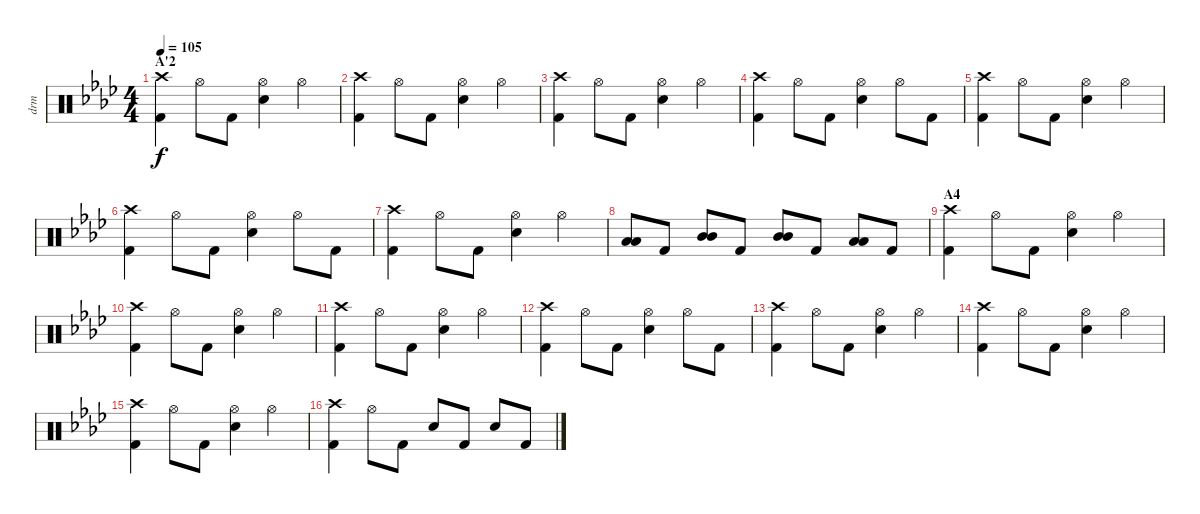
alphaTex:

\track ("drm" "drm") {instrument percussion}
\staff {score}
\articulation defaults
\ts (4 4)
\section ("" "A'2")
\tempo 105
\clef neutral
\ks ab
("Crash high (hit)" "Kick (hit) 2").4{dy f} "Hi-Hat (open)".8 "Kick (hit) 2".8 ("Hi-Hat (open)" "Electric Snare (hit)").4 "Hi-Hat (open)".4 |
("Crash high (hit)" "Kick (hit) 2").4 "Hi-Hat (open)".8 "Kick (hit) 2".8 ("Hi-Hat (open)" "Electric Snare (hit)").4 "Hi-Hat (open)".4 |
("Crash high (hit)" "Kick (hit) 2").4 "Hi-Hat (open)".8 "Kick (hit) 2".8 ("Hi-Hat (open)" "Electric Snare (hit)").4 "Hi-Hat (open)".4 |
("Crash high (hit)" "Kick (hit) 2").4 "Hi-Hat (open)".8 "Kick (hit) 2".8 ("Hi-Hat (open)" "Electric Snare (hit)").4 "Hi-Hat (open)".8 "Kick (hit) 2".8 |
("Crash high (hit)" "Kick (hit) 2").4 "Hi-Hat (open)".8 "Kick (hit) 2".8 ("Hi-Hat (open)" "Electric Snare (hit)").4 "Hi-Hat (open)".4 |
("Crash high (hit)" "Kick (hit) 2").4 "Hi-Hat (open)".8 "Kick (hit) 2".8 ("Hi-Hat (open)" "Electric Snare (hit)").4 "Hi-Hat (open)".8 "Kick (hit) 2".8 |
("Crash high (hit)" "Kick (hit) 2").4 "Hi-Hat (open)".8 "Kick (hit) 2".8 ("Hi-Hat (open)" "Electric Snare (hit)").4 "Hi-Hat (open)".4 |
("Low Tom (hit)" "Low Tom (hit)").8 "Kick (hit) 2".8 ("Mid Tom (hit)" "Mid Tom (hit)").8 "Kick (hit) 2".8 ("Mid Tom (hit)" "Mid Tom (hit)").8 "Kick (hit) 2".8 ("Low Tom (hit)" "Low Tom (hit)").8 "Kick (hit) 2".8 |
\section ("" "A4")
("Crash high (hit)" "Kick (hit) 2").4 "Hi-Hat (open)".8 "Kick (hit) 2".8 ("Hi-Hat (open)" "Electric Snare (hit)").4 "Hi-Hat (open)".4 |
("Crash high (hit)" "Kick (hit) 2").4 "Hi-Hat (open)".8 "Kick (hit) 2".8 ("Hi-Hat (open)" "Electric Snare (hit)").4 "Hi-Hat (open)".4 |
("Crash high (hit)" "Kick (hit) 2").4 "Hi-Hat (open)".8 "Kick (hit) 2".8 ("Hi-Hat (open)" "Electric Snare (hit)").4 "Hi-Hat (open)".4 |
("Crash high (hit)" "Kick (hit) 2").4 "Hi-Hat (open)".8 "Kick (hit) 2".8 ("Hi-Hat (open)" "Electric Snare (hit)").4 "Hi-Hat (open)".8 "Kick (hit) 2".8 |
("Crash high (hit)" "Kick (hit) 2").4 "Hi-Hat (open)".8 "Kick (hit) 2".8 ("Hi-Hat (open)" "Electric Snare (hit)").4 "Hi-Hat (open)".4 |
("Crash high (hit)" "Kick (hit) 2").4 "Hi-Hat (open)".8 "Kick (hit) 2".8 ("Hi-Hat (open)" "Electric Snare (hit)").4 "Hi-Hat (open)".4 |
("Crash high (hit)" "Kick (hit) 2").4 "Hi-Hat (open)".8 "Kick (hit) 2".8 ("Hi-Hat (open)" "Electric Snare (hit)").4 "Hi-Hat (open)".4 |
("Crash high (hit)" "Kick (hit) 2").4 "Hi-Hat (open)".8 "Kick (hit) 2".8 "Electric Snare (hit)".8 "Kick (hit) 2".8 "Electric Snare (hit)".8 "Kick (hit) 2".8
